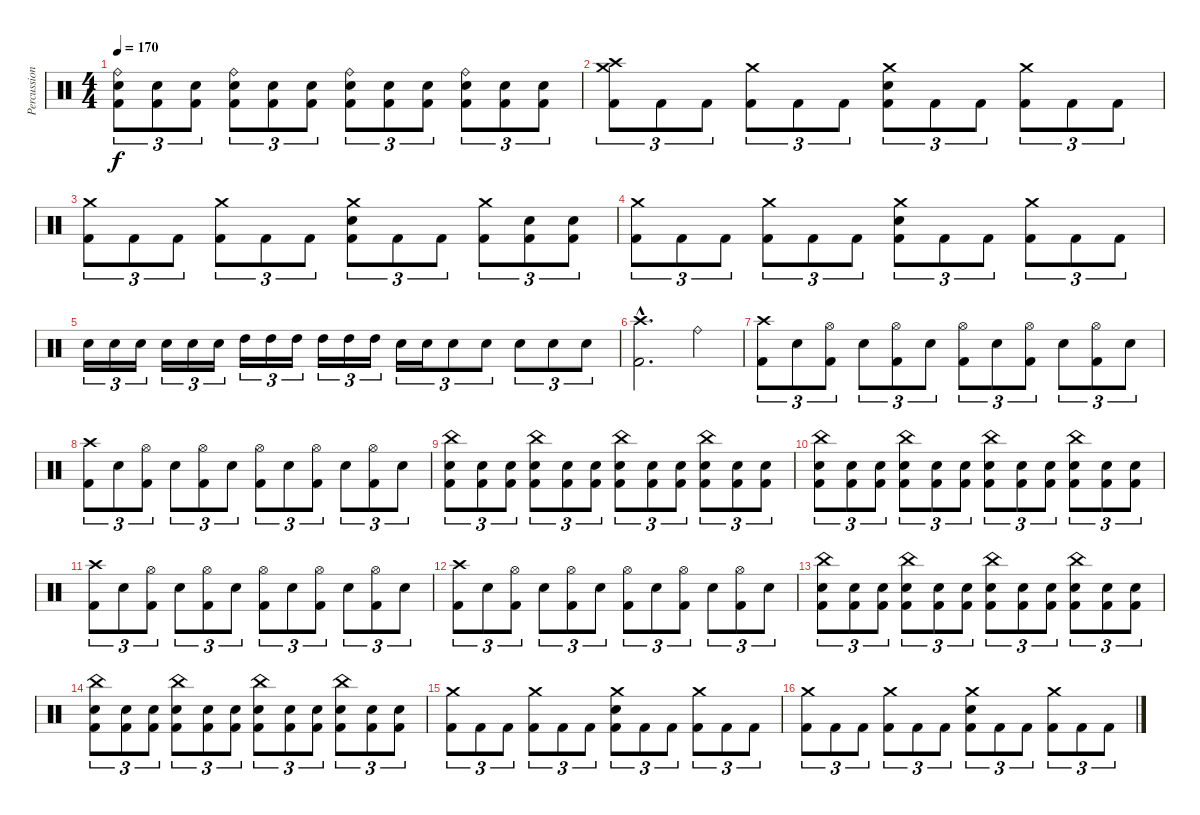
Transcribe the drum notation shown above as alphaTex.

\track ("Percussion" "Percussion") {instrument percussion}
\staff {score}
\articulation defaults
\ts (4 4)
\tempo 170
\clef neutral
\ks c
("Ride (bell)" "Electric Snare (hit)" "Kick (hit) 2").8{tu (3 2) dy f} ("Electric Snare (hit)" "Kick (hit) 2").8{tu (3 2)} ("Electric Snare (hit)" "Kick (hit) 2").8{tu (3 2)} ("Ride (bell)" "Electric Snare (hit)" "Kick (hit) 2").8{tu (3 2)} ("Electric Snare (hit)" "Kick (hit) 2").8{tu (3 2)} ("Electric Snare (hit)" "Kick (hit) 2").8{tu (3 2)} ("Ride (bell)" "Electric Snare (hit)" "Kick (hit) 2").8{tu (3 2)} ("Electric Snare (hit)" "Kick (hit) 2").8{tu (3 2)} ("Electric Snare (hit)" "Kick (hit) 2").8{tu (3 2)} ("Ride (bell)" "Electric Snare (hit)" "Kick (hit) 2").8{tu (3 2)} ("Electric Snare (hit)" "Kick (hit) 2").8{tu (3 2)} ("Electric Snare (hit)" "Kick (hit) 2").8{tu (3 2)} |
("Crash high (hit)" "Crash medium (hit)" "Kick (hit) 2").8{tu (3 2)} "Kick (hit) 2".8{tu (3 2)} "Kick (hit) 2".8{tu (3 2)} ("Crash medium (hit)" "Kick (hit) 2").8{tu (3 2)} "Kick (hit) 2".8{tu (3 2)} "Kick (hit) 2".8{tu (3 2)} ("Crash medium (hit)" "Electric Snare (hit)" "Kick (hit) 2").8{tu (3 2)} "Kick (hit) 2".8{tu (3 2)} "Kick (hit) 2".8{tu (3 2)} ("Crash medium (hit)" "Kick (hit) 2").8{tu (3 2)} "Kick (hit) 2".8{tu (3 2)} "Kick (hit) 2".8{tu (3 2)} |
("Crash medium (hit)" "Kick (hit) 2").8{tu (3 2)} "Kick (hit) 2".8{tu (3 2)} "Kick (hit) 2".8{tu (3 2)} ("Crash medium (hit)" "Kick (hit) 2").8{tu (3 2)} "Kick (hit) 2".8{tu (3 2)} "Kick (hit) 2".8{tu (3 2)} ("Crash medium (hit)" "Electric Snare (hit)" "Kick (hit) 2").8{tu (3 2)} "Kick (hit) 2".8{tu (3 2)} "Kick (hit) 2".8{tu (3 2)} ("Crash medium (hit)" "Kick (hit) 2").8{tu (3 2)} ("Electric Snare (hit)" "Kick (hit) 2").8{tu (3 2)} ("Electric Snare (hit)" "Kick (hit) 2").8{tu (3 2)} |
("Crash medium (hit)" "Kick (hit) 2").8{tu (3 2)} "Kick (hit) 2".8{tu (3 2)} "Kick (hit) 2".8{tu (3 2)} ("Crash medium (hit)" "Kick (hit) 2").8{tu (3 2)} "Kick (hit) 2".8{tu (3 2)} "Kick (hit) 2".8{tu (3 2)} ("Crash medium (hit)" "Electric Snare (hit)" "Kick (hit) 2").8{tu (3 2)} "Kick (hit) 2".8{tu (3 2)} "Kick (hit) 2".8{tu (3 2)} ("Crash medium (hit)" "Kick (hit) 2").8{tu (3 2)} "Kick (hit) 2".8{tu (3 2)} "Kick (hit) 2".8{tu (3 2)} |
"Electric Snare (hit)".16{tu (3 2)} "Electric Snare (hit)".16{tu (3 2)} "Electric Snare (hit)".16{tu (3 2)} "Electric Snare (hit)".16{tu (3 2)} "Electric Snare (hit)".16{tu (3 2)} "Electric Snare (hit)".16{tu (3 2)} "High Tom (hit)".16{tu (3 2)} "High Tom (hit)".16{tu (3 2)} "High Tom (hit)".16{tu (3 2)} "High Tom (hit)".16{tu (3 2)} "High Tom (hit)".16{tu (3 2)} "High Tom (hit)".16{tu (3 2)} "Electric Snare (hit)".16{tu (3 2)} "Electric Snare (hit)".16{tu (3 2)} "Electric Snare (hit)".8{tu (3 2)} "Electric Snare (hit)".8{tu (3 2)} "Electric Snare (hit)".8{tu (3 2)} "Electric Snare (hit)".8{tu (3 2)} "Electric Snare (hit)".8{tu (3 2)} |
("Crash high (hit)"{hac} "Kick (hit) 2"{hac}).2{d} "Ride (bell)".4 |
("Crash high (hit)" "Kick (hit) 2").8{tu (3 2)} "Electric Snare (hit)".8{tu (3 2)} ("Hi-Hat (open)" "Kick (hit) 2").8{tu (3 2)} "Electric Snare (hit)".8{tu (3 2)} ("Hi-Hat (open)" "Kick (hit) 2").8{tu (3 2)} "Electric Snare (hit)".8{tu (3 2)} ("Hi-Hat (open)" "Kick (hit) 2").8{tu (3 2)} "Electric Snare (hit)".8{tu (3 2)} ("Hi-Hat (open)" "Kick (hit) 2").8{tu (3 2)} "Electric Snare (hit)".8{tu (3 2)} ("Hi-Hat (open)" "Kick (hit) 2").8{tu (3 2)} "Electric Snare (hit)".8{tu (3 2)} |
("Crash high (hit)" "Kick (hit) 2").8{tu (3 2)} "Electric Snare (hit)".8{tu (3 2)} ("Hi-Hat (open)" "Kick (hit) 2").8{tu (3 2)} "Electric Snare (hit)".8{tu (3 2)} ("Hi-Hat (open)" "Kick (hit) 2").8{tu (3 2)} "Electric Snare (hit)".8{tu (3 2)} ("Hi-Hat (open)" "Kick (hit) 2").8{tu (3 2)} "Electric Snare (hit)".8{tu (3 2)} ("Hi-Hat (open)" "Kick (hit) 2").8{tu (3 2)} "Electric Snare (hit)".8{tu (3 2)} ("Hi-Hat (open)" "Kick (hit) 2").8{tu (3 2)} "Electric Snare (hit)".8{tu (3 2)} |
("China (hit)" "Electric Snare (hit)" "Kick (hit) 2").8{tu (3 2)} ("Electric Snare (hit)" "Kick (hit) 2").8{tu (3 2)} ("Electric Snare (hit)" "Kick (hit) 2").8{tu (3 2)} ("China (hit)" "Electric Snare (hit)" "Kick (hit) 2").8{tu (3 2)} ("Electric Snare (hit)" "Kick (hit) 2").8{tu (3 2)} ("Electric Snare (hit)" "Kick (hit) 2").8{tu (3 2)} ("China (hit)" "Electric Snare (hit)" "Kick (hit) 2").8{tu (3 2)} ("Electric Snare (hit)" "Kick (hit) 2").8{tu (3 2)} ("Electric Snare (hit)" "Kick (hit) 2").8{tu (3 2)} ("China (hit)" "Electric Snare (hit)" "Kick (hit) 2").8{tu (3 2)} ("Electric Snare (hit)" "Kick (hit) 2").8{tu (3 2)} ("Electric Snare (hit)" "Kick (hit) 2").8{tu (3 2)} |
("China (hit)" "Electric Snare (hit)" "Kick (hit) 2").8{tu (3 2)} ("Electric Snare (hit)" "Kick (hit) 2").8{tu (3 2)} ("Electric Snare (hit)" "Kick (hit) 2").8{tu (3 2)} ("China (hit)" "Electric Snare (hit)" "Kick (hit) 2").8{tu (3 2)} ("Electric Snare (hit)" "Kick (hit) 2").8{tu (3 2)} ("Electric Snare (hit)" "Kick (hit) 2").8{tu (3 2)} ("China (hit)" "Electric Snare (hit)" "Kick (hit) 2").8{tu (3 2)} ("Electric Snare (hit)" "Kick (hit) 2").8{tu (3 2)} ("Electric Snare (hit)" "Kick (hit) 2").8{tu (3 2)} ("China (hit)" "Electric Snare (hit)" "Kick (hit) 2").8{tu (3 2)} ("Electric Snare (hit)" "Kick (hit) 2").8{tu (3 2)} ("Electric Snare (hit)" "Kick (hit) 2").8{tu (3 2)} |
("Crash high (hit)" "Kick (hit) 2").8{tu (3 2)} "Electric Snare (hit)".8{tu (3 2)} ("Hi-Hat (open)" "Kick (hit) 2").8{tu (3 2)} "Electric Snare (hit)".8{tu (3 2)} ("Hi-Hat (open)" "Kick (hit) 2").8{tu (3 2)} "Electric Snare (hit)".8{tu (3 2)} ("Hi-Hat (open)" "Kick (hit) 2").8{tu (3 2)} "Electric Snare (hit)".8{tu (3 2)} ("Hi-Hat (open)" "Kick (hit) 2").8{tu (3 2)} "Electric Snare (hit)".8{tu (3 2)} ("Hi-Hat (open)" "Kick (hit) 2").8{tu (3 2)} "Electric Snare (hit)".8{tu (3 2)} |
("Crash high (hit)" "Kick (hit) 2").8{tu (3 2)} "Electric Snare (hit)".8{tu (3 2)} ("Hi-Hat (open)" "Kick (hit) 2").8{tu (3 2)} "Electric Snare (hit)".8{tu (3 2)} ("Hi-Hat (open)" "Kick (hit) 2").8{tu (3 2)} "Electric Snare (hit)".8{tu (3 2)} ("Hi-Hat (open)" "Kick (hit) 2").8{tu (3 2)} "Electric Snare (hit)".8{tu (3 2)} ("Hi-Hat (open)" "Kick (hit) 2").8{tu (3 2)} "Electric Snare (hit)".8{tu (3 2)} ("Hi-Hat (open)" "Kick (hit) 2").8{tu (3 2)} "Electric Snare (hit)".8{tu (3 2)} |
("China (hit)" "Electric Snare (hit)" "Kick (hit) 2").8{tu (3 2)} ("Electric Snare (hit)" "Kick (hit) 2").8{tu (3 2)} ("Electric Snare (hit)" "Kick (hit) 2").8{tu (3 2)} ("China (hit)" "Electric Snare (hit)" "Kick (hit) 2").8{tu (3 2)} ("Electric Snare (hit)" "Kick (hit) 2").8{tu (3 2)} ("Electric Snare (hit)" "Kick (hit) 2").8{tu (3 2)} ("China (hit)" "Electric Snare (hit)" "Kick (hit) 2").8{tu (3 2)} ("Electric Snare (hit)" "Kick (hit) 2").8{tu (3 2)} ("Electric Snare (hit)" "Kick (hit) 2").8{tu (3 2)} ("China (hit)" "Electric Snare (hit)" "Kick (hit) 2").8{tu (3 2)} ("Electric Snare (hit)" "Kick (hit) 2").8{tu (3 2)} ("Electric Snare (hit)" "Kick (hit) 2").8{tu (3 2)} |
("China (hit)" "Electric Snare (hit)" "Kick (hit) 2").8{tu (3 2)} ("Electric Snare (hit)" "Kick (hit) 2").8{tu (3 2)} ("Electric Snare (hit)" "Kick (hit) 2").8{tu (3 2)} ("China (hit)" "Electric Snare (hit)" "Kick (hit) 2").8{tu (3 2)} ("Electric Snare (hit)" "Kick (hit) 2").8{tu (3 2)} ("Electric Snare (hit)" "Kick (hit) 2").8{tu (3 2)} ("China (hit)" "Electric Snare (hit)" "Kick (hit) 2").8{tu (3 2)} ("Electric Snare (hit)" "Kick (hit) 2").8{tu (3 2)} ("Electric Snare (hit)" "Kick (hit) 2").8{tu (3 2)} ("China (hit)" "Electric Snare (hit)" "Kick (hit) 2").8{tu (3 2)} ("Electric Snare (hit)" "Kick (hit) 2").8{tu (3 2)} ("Electric Snare (hit)" "Kick (hit) 2").8{tu (3 2)} |
("Crash medium (hit)" "Kick (hit) 2").8{tu (3 2)} "Kick (hit) 2".8{tu (3 2)} "Kick (hit) 2".8{tu (3 2)} ("Crash medium (hit)" "Kick (hit) 2").8{tu (3 2)} "Kick (hit) 2".8{tu (3 2)} "Kick (hit) 2".8{tu (3 2)} ("Crash medium (hit)" "Electric Snare (hit)" "Kick (hit) 2").8{tu (3 2)} "Kick (hit) 2".8{tu (3 2)} "Kick (hit) 2".8{tu (3 2)} ("Crash medium (hit)" "Kick (hit) 2").8{tu (3 2)} "Kick (hit) 2".8{tu (3 2)} "Kick (hit) 2".8{tu (3 2)} |
("Crash medium (hit)" "Kick (hit) 2").8{tu (3 2)} "Kick (hit) 2".8{tu (3 2)} "Kick (hit) 2".8{tu (3 2)} ("Crash medium (hit)" "Kick (hit) 2").8{tu (3 2)} "Kick (hit) 2".8{tu (3 2)} "Kick (hit) 2".8{tu (3 2)} ("Crash medium (hit)" "Electric Snare (hit)" "Kick (hit) 2").8{tu (3 2)} "Kick (hit) 2".8{tu (3 2)} "Kick (hit) 2".8{tu (3 2)} ("Crash medium (hit)" "Kick (hit) 2").8{tu (3 2)} "Kick (hit) 2".8{tu (3 2)} "Kick (hit) 2".8{tu (3 2)}
